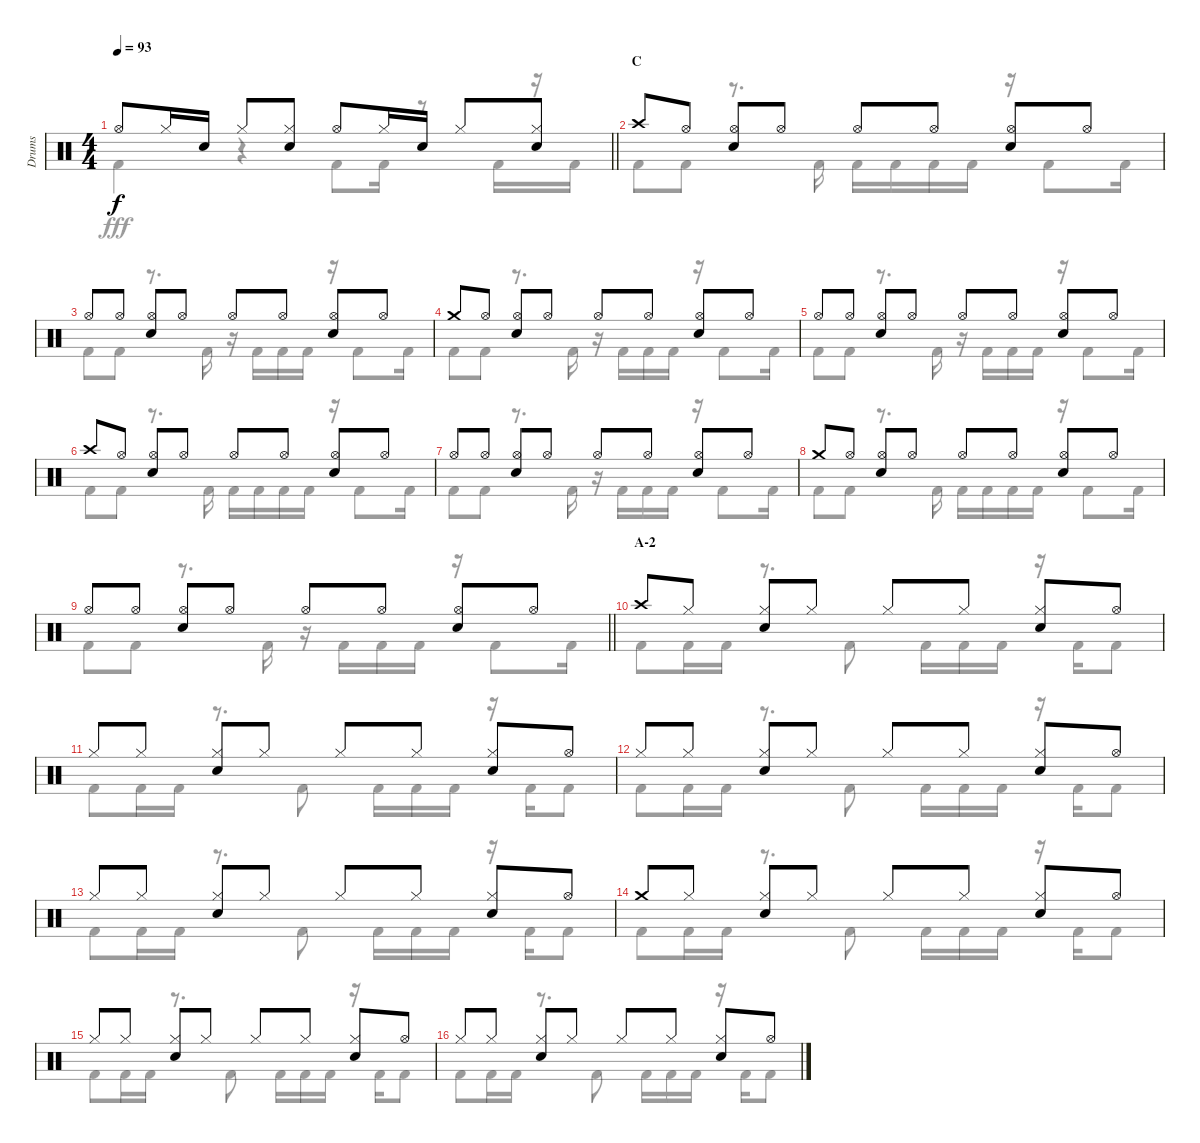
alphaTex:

\track ("Drums" "Drums") {instrument percussion}
\staff {score}
\articulation defaults
\voice
\ts (4 4)
\tempo 93
\clef neutral
\barLineRight lightlight
\ks c "Hi-Hat (open)".8{dy f} "Hi-Hat (closed)".16 "Snare (hit) 2".16 "Hi-Hat (closed)".8
("Hi-Hat (closed)" "Snare (hit) 2").8 "Hi-Hat (open)".8 "Hi-Hat (closed)".16 "Snare (hit) 2".16 "Hi-Hat (closed)".8 ("Hi-Hat (closed)" "Snare (hit) 2").8 |
\section ("" "C")
"Crash high (hit)".8 "Hi-Hat (open)".8 ("Hi-Hat (open)" "Snare (hit) 2").8 "Hi-Hat (open)".8 "Hi-Hat (open)".8 "Hi-Hat (open)".8 ("Hi-Hat (open)" "Snare (hit) 2").8 "Hi-Hat (open)".8 |
"Hi-Hat (open)".8 "Hi-Hat (open)".8 ("Hi-Hat (open)" "Snare (hit) 2").8 "Hi-Hat (open)".8 "Hi-Hat (open)".8 "Hi-Hat (open)".8 ("Hi-Hat (open)" "Snare (hit) 2").8 "Hi-Hat (open)".8 |
"Crash medium (hit)".8 "Hi-Hat (open)".8 ("Hi-Hat (open)" "Snare (hit) 2").8 "Hi-Hat (open)".8 "Hi-Hat (open)".8 "Hi-Hat (open)".8 ("Hi-Hat (open)" "Snare (hit) 2").8 "Hi-Hat (open)".8 |
"Hi-Hat (open)".8 "Hi-Hat (open)".8 ("Hi-Hat (open)" "Snare (hit) 2").8 "Hi-Hat (open)".8 "Hi-Hat (open)".8 "Hi-Hat (open)".8 ("Hi-Hat (open)" "Snare (hit) 2").8 "Hi-Hat (open)".8 |
"Crash high (hit)".8 "Hi-Hat (open)".8 ("Hi-Hat (open)" "Snare (hit) 2").8 "Hi-Hat (open)".8 "Hi-Hat (open)".8 "Hi-Hat (open)".8 ("Hi-Hat (open)" "Snare (hit) 2").8 "Hi-Hat (open)".8 |
"Hi-Hat (open)".8 "Hi-Hat (open)".8 ("Hi-Hat (open)" "Snare (hit) 2").8 "Hi-Hat (open)".8 "Hi-Hat (open)".8 "Hi-Hat (open)".8 ("Hi-Hat (open)" "Snare (hit) 2").8 "Hi-Hat (open)".8 |
"Crash medium (hit)".8 "Hi-Hat (open)".8 ("Hi-Hat (open)" "Snare (hit) 2").8 "Hi-Hat (open)".8 "Hi-Hat (open)".8 "Hi-Hat (open)".8 ("Hi-Hat (open)" "Snare (hit) 2").8 "Hi-Hat (open)".8 |
\barLineRight lightlight "Hi-Hat (open)".8 "Hi-Hat (open)".8
("Hi-Hat (open)" "Snare (hit) 2").8 "Hi-Hat (open)".8 "Hi-Hat (open)".8 "Hi-Hat (open)".8 ("Hi-Hat (open)" "Snare (hit) 2").8 "Hi-Hat (open)".8 |
\section ("" "A-2")
"Crash high (hit)".8 "Hi-Hat (closed)".8 ("Hi-Hat (closed)" "Snare (hit) 2").8 "Hi-Hat (closed)".8 "Hi-Hat (closed)".8 "Hi-Hat (closed)".8 ("Hi-Hat (closed)" "Snare (hit) 2").8 "Hi-Hat (open)".8 |
"Hi-Hat (closed)".8 "Hi-Hat (closed)".8 ("Hi-Hat (closed)" "Snare (hit) 2").8 "Hi-Hat (closed)".8 "Hi-Hat (closed)".8 "Hi-Hat (closed)".8 ("Hi-Hat (closed)" "Snare (hit) 2").8 "Hi-Hat (open)".8 |
"Hi-Hat (closed)".8 "Hi-Hat (closed)".8 ("Hi-Hat (closed)" "Snare (hit) 2").8 "Hi-Hat (closed)".8 "Hi-Hat (closed)".8 "Hi-Hat (closed)".8 ("Hi-Hat (closed)" "Snare (hit) 2").8 "Hi-Hat (open)".8 |
"Hi-Hat (closed)".8 "Hi-Hat (closed)".8 ("Hi-Hat (closed)" "Snare (hit) 2").8 "Hi-Hat (closed)".8 "Hi-Hat (closed)".8 "Hi-Hat (closed)".8 ("Hi-Hat (closed)" "Snare (hit) 2").8 "Hi-Hat (open)".8 |
"Crash medium (hit)".8 "Hi-Hat (closed)".8 ("Hi-Hat (closed)" "Snare (hit) 2").8 "Hi-Hat (closed)".8 "Hi-Hat (closed)".8 "Hi-Hat (closed)".8 ("Hi-Hat (closed)" "Snare (hit) 2").8 "Hi-Hat (open)".8 |
"Hi-Hat (closed)".8 "Hi-Hat (closed)".8 ("Hi-Hat (closed)" "Snare (hit) 2").8 "Hi-Hat (closed)".8 "Hi-Hat (closed)".8 "Hi-Hat (closed)".8 ("Hi-Hat (closed)" "Snare (hit) 2").8 "Hi-Hat (open)".8 |
"Hi-Hat (closed)".8 "Hi-Hat (closed)".8 ("Hi-Hat (closed)" "Snare (hit) 2").8 "Hi-Hat (closed)".8 "Hi-Hat (closed)".8 "Hi-Hat (closed)".8 ("Hi-Hat (closed)" "Snare (hit) 2").8 "Hi-Hat (open)".8
\voice
\clef neutral
\ottava regular
\simile none
\barLineRight lightlight
\ks c "Kick (hit) 2".4{dy fff}
r.4 "Kick (hit) 2".8 "Kick (hit) 2".16 r.8 "Kick (hit) 2".16 r.16 "Kick (hit) 2".16 |
"Kick (hit) 2".8 "Kick (hit) 2".8 r.8{d} "Kick (hit) 2".16 "Kick (hit) 2".16 "Kick (hit) 2".16 "Kick (hit) 2".16 "Kick (hit) 2".16 r.16 "Kick (hit) 2".8 "Kick (hit) 2".16 |
"Kick (hit) 2".8 "Kick (hit) 2".8 r.8{d} "Kick (hit) 2".16 r.16 "Kick (hit) 2".16 "Kick (hit) 2".16 "Kick (hit) 2".16 r.16 "Kick (hit) 2".8 "Kick (hit) 2".16 |
"Kick (hit) 2".8 "Kick (hit) 2".8 r.8{d} "Kick (hit) 2".16 r.16 "Kick (hit) 2".16 "Kick (hit) 2".16 "Kick (hit) 2".16 r.16 "Kick (hit) 2".8 "Kick (hit) 2".16 |
"Kick (hit) 2".8 "Kick (hit) 2".8 r.8{d} "Kick (hit) 2".16 r.16 "Kick (hit) 2".16 "Kick (hit) 2".16 "Kick (hit) 2".16 r.16 "Kick (hit) 2".8 "Kick (hit) 2".16 |
"Kick (hit) 2".8 "Kick (hit) 2".8 r.8{d} "Kick (hit) 2".16 "Kick (hit) 2".16 "Kick (hit) 2".16 "Kick (hit) 2".16 "Kick (hit) 2".16 r.16 "Kick (hit) 2".8 "Kick (hit) 2".16 |
"Kick (hit) 2".8 "Kick (hit) 2".8 r.8{d} "Kick (hit) 2".16 r.16 "Kick (hit) 2".16 "Kick (hit) 2".16 "Kick (hit) 2".16 r.16 "Kick (hit) 2".8 "Kick (hit) 2".16 |
"Kick (hit) 2".8 "Kick (hit) 2".8 r.8{d} "Kick (hit) 2".16 "Kick (hit) 2".16 "Kick (hit) 2".16 "Kick (hit) 2".16 "Kick (hit) 2".16 r.16 "Kick (hit) 2".8 "Kick (hit) 2".16 |
\barLineRight lightlight "Kick (hit) 2".8 "Kick (hit) 2".8
r.8{d} "Kick (hit) 2".16 r.16 "Kick (hit) 2".16 "Kick (hit) 2".16 "Kick (hit) 2".16 r.16 "Kick (hit) 2".8 "Kick (hit) 2".16 |
"Kick (hit) 2".8 "Kick (hit) 2".16 "Kick (hit) 2".16 r.8{d} "Kick (hit) 2".8 "Kick (hit) 2".16 "Kick (hit) 2".16 "Kick (hit) 2".16 r.16 "Kick (hit) 2".16 "Kick (hit) 2".8 |
"Kick (hit) 2".8 "Kick (hit) 2".16 "Kick (hit) 2".16 r.8{d} "Kick (hit) 2".8 "Kick (hit) 2".16 "Kick (hit) 2".16 "Kick (hit) 2".16 r.16 "Kick (hit) 2".16 "Kick (hit) 2".8 |
"Kick (hit) 2".8 "Kick (hit) 2".16 "Kick (hit) 2".16 r.8{d} "Kick (hit) 2".8 "Kick (hit) 2".16 "Kick (hit) 2".16 "Kick (hit) 2".16 r.16 "Kick (hit) 2".16 "Kick (hit) 2".8 |
"Kick (hit) 2".8 "Kick (hit) 2".16 "Kick (hit) 2".16 r.8{d} "Kick (hit) 2".8 "Kick (hit) 2".16 "Kick (hit) 2".16 "Kick (hit) 2".16 r.16 "Kick (hit) 2".16 "Kick (hit) 2".8 |
"Kick (hit) 2".8 "Kick (hit) 2".16 "Kick (hit) 2".16 r.8{d} "Kick (hit) 2".8 "Kick (hit) 2".16 "Kick (hit) 2".16 "Kick (hit) 2".16 r.16 "Kick (hit) 2".16 "Kick (hit) 2".8 |
"Kick (hit) 2".8 "Kick (hit) 2".16 "Kick (hit) 2".16 r.8{d} "Kick (hit) 2".8 "Kick (hit) 2".16 "Kick (hit) 2".16 "Kick (hit) 2".16 r.16 "Kick (hit) 2".16 "Kick (hit) 2".8 |
"Kick (hit) 2".8 "Kick (hit) 2".16 "Kick (hit) 2".16 r.8{d} "Kick (hit) 2".8 "Kick (hit) 2".16 "Kick (hit) 2".16 "Kick (hit) 2".16 r.16 "Kick (hit) 2".16 "Kick (hit) 2".8
